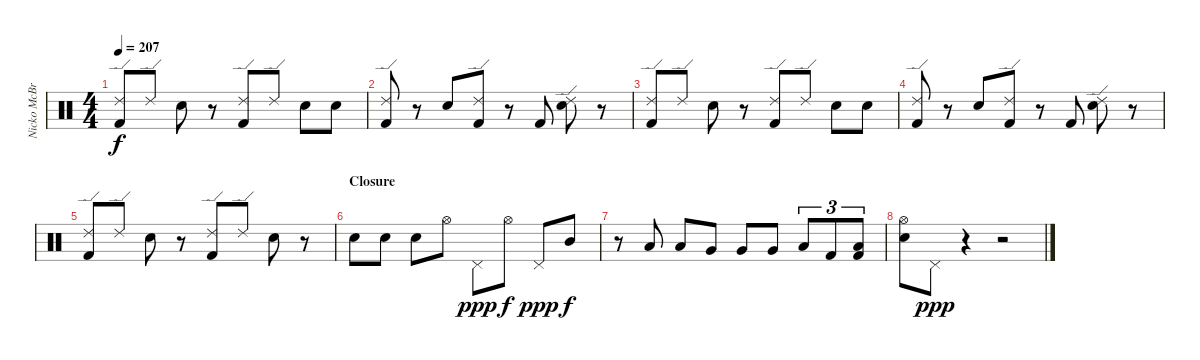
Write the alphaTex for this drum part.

\track ("Nicko McBrain" "Nicko McBr") {instrument percussion}
\staff {score}
\articulation defaults
\ts (4 4)
\tempo 207
\clef neutral
\ks c
("Ride (edge) 2" "Kick (hit) 2").8{dy f} "Ride (edge) 2".8 "Snare (hit) 2".8 r.8 ("Ride (edge) 2" "Kick (hit) 2").8 "Ride (edge) 2".8 "Snare (hit) 2".8 "Snare (hit) 2".8 |
("Ride (edge) 2" "Kick (hit) 2").8 r.8 "Snare (hit) 2".8 ("Ride (edge) 2" "Kick (hit) 2").8 r.8 "Kick (hit) 2".8 ("Ride (edge) 2" "Snare (hit) 2").8 r.8 |
("Ride (edge) 2" "Kick (hit) 2").8 "Ride (edge) 2".8 "Snare (hit) 2".8 r.8 ("Ride (edge) 2" "Kick (hit) 2").8 "Ride (edge) 2".8 "Snare (hit) 2".8 "Snare (hit) 2".8 |
("Ride (edge) 2" "Kick (hit) 2").8 r.8 "Snare (hit) 2".8 ("Ride (edge) 2" "Kick (hit) 2").8 r.8 "Kick (hit) 2".8 ("Ride (edge) 2" "Snare (hit) 2").8 r.8 |
("Ride (edge) 2" "Kick (hit) 2").8 "Ride (edge) 2".8 "Snare (hit) 2".8 r.8 ("Ride (edge) 2" "Kick (hit) 2").8 "Ride (edge) 2".8 "Snare (hit) 2".8 r.8 |
\section ("" "Closure")
"Snare (hit) 2".8 "Snare (hit) 2".8 "Snare (hit) 2".8 "Hi-Hat (open)".8 "Pedal Hi-Hat (hit)".8{dy ppp} "Hi-Hat (open)".8{dy f} "Pedal Hi-Hat (hit)".8{dy ppp} "Mid Tom (hit)".8{dy f} |
r.8 "Low Tom (hit)".8 "Low Tom (hit)".8 "Very Low Tom (hit)".8 "Very Low Tom (hit)".8 "Very Low Tom (hit)".8 "Low Floor Tom (hit)".8{tu (3 2)} "Kick (hit) 2".8{tu (3 2)} ("Low Floor Tom (hit)" "Kick (hit) 2").8{tu (3 2)} |
("Hi-Hat (open)" "Snare (hit) 2").8 "Pedal Hi-Hat (hit)".8{dy ppp} r.4 r.2
